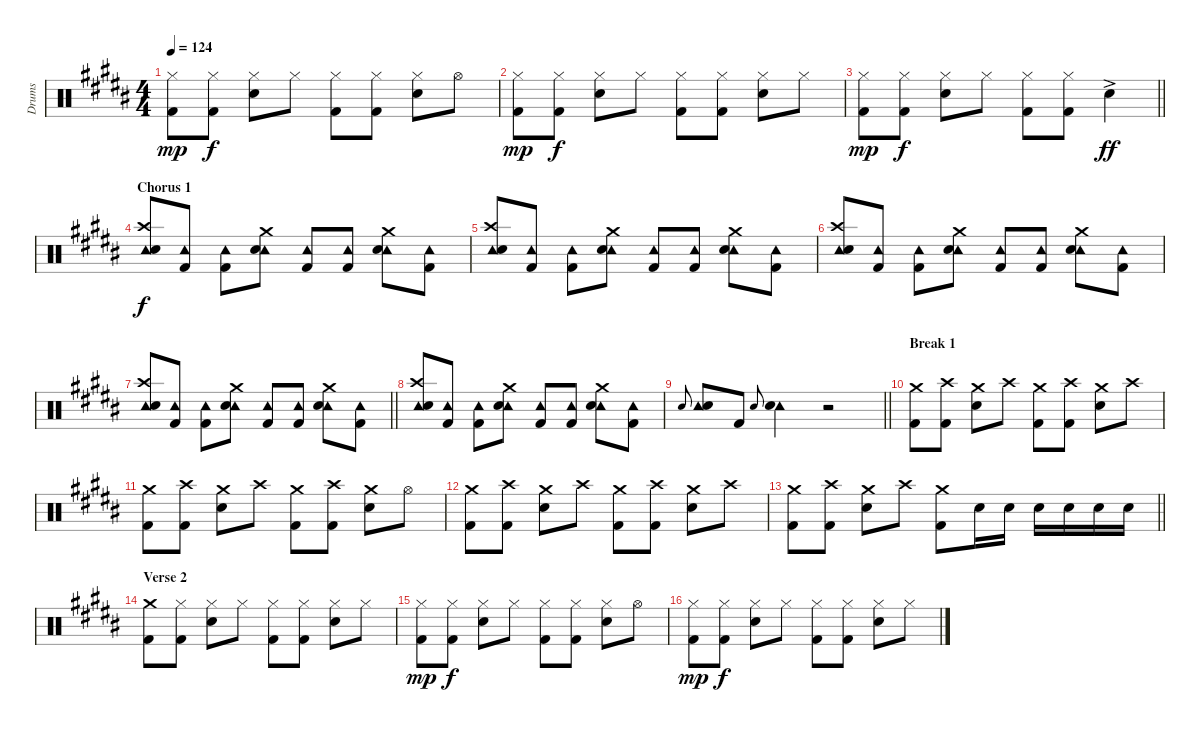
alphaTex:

\track ("Drums" "Drums") {instrument percussion}
\staff {score}
\articulation defaults
\ts (4 4)
\tempo 124
\clef neutral
\ks b
("Hi-Hat (closed)" "Kick (hit) 2").8{dy mp} ("Hi-Hat (closed)" "Kick (hit) 2").8{dy f} ("Hi-Hat (closed)" "Snare (hit) 2").8 "Hi-Hat (closed)".8 ("Hi-Hat (closed)" "Kick (hit) 2").8 ("Hi-Hat (closed)" "Kick (hit) 2").8 ("Hi-Hat (closed)" "Snare (hit) 2").8 "Hi-Hat (open)".8 |
("Hi-Hat (closed)" "Kick (hit) 2").8{dy mp} ("Hi-Hat (closed)" "Kick (hit) 2").8{dy f} ("Hi-Hat (closed)" "Snare (hit) 2").8 "Hi-Hat (closed)".8 ("Hi-Hat (closed)" "Kick (hit) 2").8 ("Hi-Hat (closed)" "Kick (hit) 2").8 ("Hi-Hat (closed)" "Snare (hit) 2").8 "Hi-Hat (closed)".8 |
\barLineRight lightlight
("Hi-Hat (closed)" "Kick (hit) 2").8{dy mp} ("Hi-Hat (closed)" "Kick (hit) 2").8{dy f} ("Hi-Hat (closed)" "Snare (hit) 2").8 "Hi-Hat (closed)".8 ("Hi-Hat (closed)" "Kick (hit) 2").8 ("Hi-Hat (closed)" "Kick (hit) 2").8 "Snare (hit) 2"{ac}.4{dy ff} |
\section ("" "Chorus 1")
("Crash high (hit)" "Tambourine (hit)" "Snare (hit) 2").8{dy f} ("Tambourine (hit)" "Kick (hit) 2").8 ("Tambourine (hit)" "Kick (hit) 2").8 ("Crash medium (hit)" "Tambourine (hit)" "Snare (hit) 2").8 ("Tambourine (hit)" "Kick (hit) 2").8 ("Tambourine (hit)" "Kick (hit) 2").8 ("Crash medium (hit)" "Tambourine (hit)" "Snare (hit) 2").8 ("Tambourine (hit)" "Kick (hit) 2").8 |
("Crash high (hit)" "Tambourine (hit)" "Snare (hit) 2").8 ("Tambourine (hit)" "Kick (hit) 2").8 ("Tambourine (hit)" "Kick (hit) 2").8 ("Crash medium (hit)" "Tambourine (hit)" "Snare (hit) 2").8 ("Tambourine (hit)" "Kick (hit) 2").8 ("Tambourine (hit)" "Kick (hit) 2").8 ("Crash medium (hit)" "Tambourine (hit)" "Snare (hit) 2").8 ("Tambourine (hit)" "Kick (hit) 2").8 |
("Crash high (hit)" "Tambourine (hit)" "Snare (hit) 2").8 ("Tambourine (hit)" "Kick (hit) 2").8 ("Tambourine (hit)" "Kick (hit) 2").8 ("Crash medium (hit)" "Tambourine (hit)" "Snare (hit) 2").8 ("Tambourine (hit)" "Kick (hit) 2").8 ("Tambourine (hit)" "Kick (hit) 2").8 ("Crash medium (hit)" "Tambourine (hit)" "Snare (hit) 2").8 ("Tambourine (hit)" "Kick (hit) 2").8 |
\barLineRight lightlight
("Crash high (hit)" "Tambourine (hit)" "Snare (hit) 2").8 ("Tambourine (hit)" "Kick (hit) 2").8 ("Tambourine (hit)" "Kick (hit) 2").8 ("Crash medium (hit)" "Tambourine (hit)" "Snare (hit) 2").8 ("Tambourine (hit)" "Kick (hit) 2").8 ("Tambourine (hit)" "Kick (hit) 2").8 ("Crash medium (hit)" "Tambourine (hit)" "Snare (hit) 2").8 ("Tambourine (hit)" "Kick (hit) 2").8 |
("Crash high (hit)" "Tambourine (hit)" "Snare (hit) 2").8 ("Tambourine (hit)" "Kick (hit) 2").8 ("Tambourine (hit)" "Kick (hit) 2").8 ("Crash medium (hit)" "Tambourine (hit)" "Snare (hit) 2").8 ("Tambourine (hit)" "Kick (hit) 2").8 ("Tambourine (hit)" "Kick (hit) 2").8 ("Crash medium (hit)" "Tambourine (hit)" "Snare (hit) 2").8 ("Tambourine (hit)" "Kick (hit) 2").8 |
\barLineRight lightlight "Snare (hit) 2".8{gr onbeat}
("Tambourine (hit)" "Snare (hit) 2").8 "Kick (hit) 2".8 "Snare (hit) 2".8{gr onbeat} ("Tambourine (hit)" "Snare (hit) 2").4 r.2 |
\section ("" "Break 1")
("Crash medium (hit)" "Kick (hit) 2").8 ("Crash high (hit)" "Kick (hit) 2").8 ("Crash medium (hit)" "Snare (hit) 2").8 "Crash high (hit)".8 ("Crash medium (hit)" "Kick (hit) 2").8 ("Crash high (hit)" "Kick (hit) 2").8 ("Crash medium (hit)" "Snare (hit) 2").8 "Crash high (hit)".8 |
("Crash medium (hit)" "Kick (hit) 2").8 ("Crash high (hit)" "Kick (hit) 2").8 ("Crash medium (hit)" "Snare (hit) 2").8 "Crash high (hit)".8 ("Crash medium (hit)" "Kick (hit) 2").8 ("Crash high (hit)" "Kick (hit) 2").8 ("Crash medium (hit)" "Snare (hit) 2").8 "Hi-Hat (open)".8 |
("Crash medium (hit)" "Kick (hit) 2").8 ("Crash high (hit)" "Kick (hit) 2").8 ("Crash medium (hit)" "Snare (hit) 2").8 "Crash high (hit)".8 ("Crash medium (hit)" "Kick (hit) 2").8 ("Crash high (hit)" "Kick (hit) 2").8 ("Crash medium (hit)" "Snare (hit) 2").8 "Crash high (hit)".8 |
\barLineRight lightlight
("Crash medium (hit)" "Kick (hit) 2").8 ("Crash high (hit)" "Kick (hit) 2").8 ("Crash medium (hit)" "Snare (hit) 2").8 "Crash high (hit)".8 ("Crash medium (hit)" "Kick (hit) 2").8 "Snare (hit) 2".16 "Snare (hit) 2".16 "Snare (hit) 2".16 "Snare (hit) 2".16 "Snare (hit) 2".16 "Snare (hit) 2".16 |
\section ("" "Verse 2")
("Crash medium (hit)" "Kick (hit) 2").8 ("Hi-Hat (closed)" "Kick (hit) 2").8 ("Hi-Hat (closed)" "Snare (hit) 2").8 "Hi-Hat (closed)".8 ("Hi-Hat (closed)" "Kick (hit) 2").8 ("Hi-Hat (closed)" "Kick (hit) 2").8 ("Hi-Hat (closed)" "Snare (hit) 2").8 "Hi-Hat (closed)".8 |
("Hi-Hat (closed)" "Kick (hit) 2").8{dy mp} ("Hi-Hat (closed)" "Kick (hit) 2").8{dy f} ("Hi-Hat (closed)" "Snare (hit) 2").8 "Hi-Hat (closed)".8 ("Hi-Hat (closed)" "Kick (hit) 2").8 ("Hi-Hat (closed)" "Kick (hit) 2").8 ("Hi-Hat (closed)" "Snare (hit) 2").8 "Hi-Hat (open)".8 |
("Hi-Hat (closed)" "Kick (hit) 2").8{dy mp} ("Hi-Hat (closed)" "Kick (hit) 2").8{dy f} ("Hi-Hat (closed)" "Snare (hit) 2").8 "Hi-Hat (closed)".8 ("Hi-Hat (closed)" "Kick (hit) 2").8 ("Hi-Hat (closed)" "Kick (hit) 2").8 ("Hi-Hat (closed)" "Snare (hit) 2").8 "Hi-Hat (closed)".8
